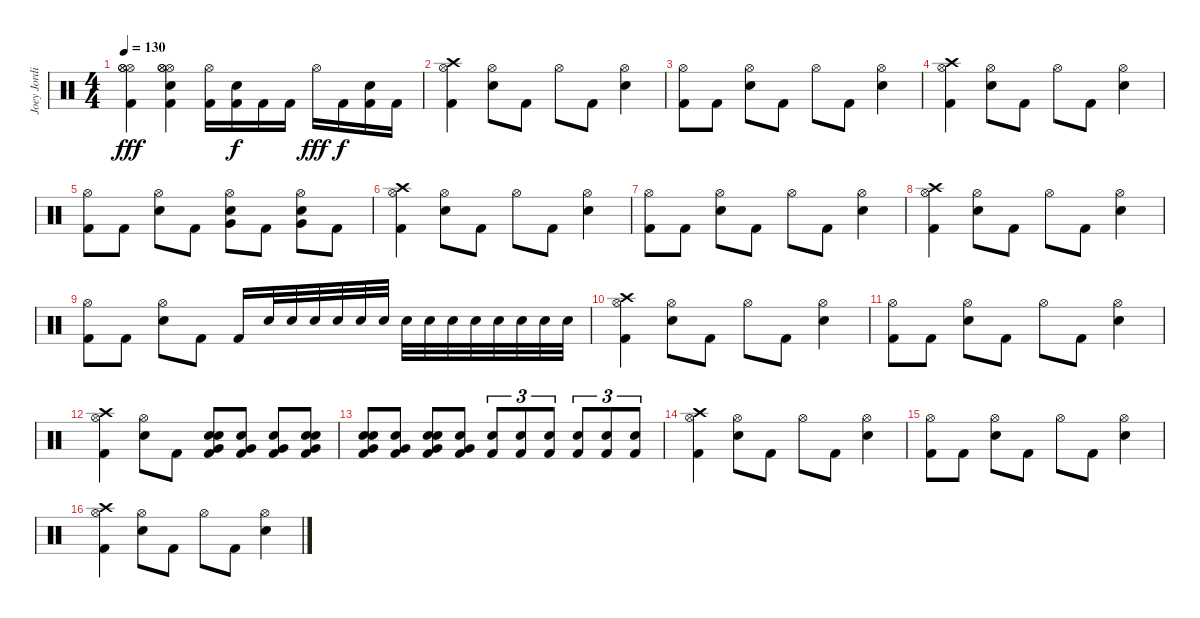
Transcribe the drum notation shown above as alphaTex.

\track ("Joey Jordison" "Joey Jordi") {instrument percussion}
\staff {score}
\articulation defaults
\ts (4 4)
\tempo 130
\clef neutral
\ks c
("Hi-Hat (open)" "Hi-Hat (open)" "Hi-Hat (open)" "Kick (hit) 2").4{dy fff} ("Hi-Hat (open)" "Hi-Hat (open)" "Hi-Hat (open)" "Electric Snare (hit)" "Kick (hit) 2").4 ("Hi-Hat (open)" "Kick (hit) 2").16 ("Electric Snare (hit)" "Kick (hit) 2").16{dy f} "Kick (hit) 2".16 "Kick (hit) 2".16 "Hi-Hat (open)".16{dy fff} "Kick (hit) 2".16{dy f} ("Electric Snare (hit)" "Kick (hit) 2").16 "Kick (hit) 2".16 |
("Hi-Hat (open)" "Crash high (hit)" "Kick (hit) 2").4 ("Hi-Hat (open)" "Electric Snare (hit)").8 "Kick (hit) 2".8 "Hi-Hat (open)".8 "Kick (hit) 2".8 ("Hi-Hat (open)" "Electric Snare (hit)").4 |
("Hi-Hat (open)" "Kick (hit) 2").8 "Kick (hit) 2".8 ("Hi-Hat (open)" "Electric Snare (hit)").8 "Kick (hit) 2".8 "Hi-Hat (open)".8 "Kick (hit) 2".8 ("Hi-Hat (open)" "Electric Snare (hit)").4 |
("Hi-Hat (open)" "Crash high (hit)" "Kick (hit) 2").4 ("Hi-Hat (open)" "Electric Snare (hit)").8 "Kick (hit) 2".8 "Hi-Hat (open)".8 "Kick (hit) 2".8 ("Hi-Hat (open)" "Electric Snare (hit)").4 |
("Hi-Hat (open)" "Kick (hit) 2").8 "Kick (hit) 2".8 ("Hi-Hat (open)" "Electric Snare (hit)").8 "Kick (hit) 2".8 ("Hi-Hat (open)" "Electric Snare (hit)" "Very Low Tom (hit)").8 "Kick (hit) 2".8 ("Hi-Hat (open)" "Very Low Tom (hit)" "Electric Snare (hit)").8 "Kick (hit) 2".8 |
("Hi-Hat (open)" "Crash high (hit)" "Kick (hit) 2").4 ("Hi-Hat (open)" "Electric Snare (hit)").8 "Kick (hit) 2".8 "Hi-Hat (open)".8 "Kick (hit) 2".8 ("Hi-Hat (open)" "Electric Snare (hit)").4 |
("Hi-Hat (open)" "Kick (hit) 2").8 "Kick (hit) 2".8 ("Hi-Hat (open)" "Electric Snare (hit)").8 "Kick (hit) 2".8 "Hi-Hat (open)".8 "Kick (hit) 2".8 ("Hi-Hat (open)" "Electric Snare (hit)").4 |
("Hi-Hat (open)" "Crash high (hit)" "Kick (hit) 2").4 ("Hi-Hat (open)" "Electric Snare (hit)").8 "Kick (hit) 2".8 "Hi-Hat (open)".8 "Kick (hit) 2".8 ("Hi-Hat (open)" "Electric Snare (hit)").4 |
("Hi-Hat (open)" "Kick (hit) 2").8 "Kick (hit) 2".8 ("Hi-Hat (open)" "Electric Snare (hit)").8 "Kick (hit) 2".8 "Kick (hit) 2".16 "Electric Snare (hit)".32 "Electric Snare (hit)".32 "Electric Snare (hit)".32 "Electric Snare (hit)".32 "Electric Snare (hit)".32 "Electric Snare (hit)".32 "Electric Snare (hit)".32 "Electric Snare (hit)".32 "Electric Snare (hit)".32 "Electric Snare (hit)".32 "Electric Snare (hit)".32 "Electric Snare (hit)".32 "Electric Snare (hit)".32 "Electric Snare (hit)".32 |
("Hi-Hat (open)" "Crash high (hit)" "Kick (hit) 2").4 ("Hi-Hat (open)" "Electric Snare (hit)").8 "Kick (hit) 2".8 "Hi-Hat (open)".8 "Kick (hit) 2".8 ("Hi-Hat (open)" "Electric Snare (hit)").4 |
("Hi-Hat (open)" "Kick (hit) 2").8 "Kick (hit) 2".8 ("Hi-Hat (open)" "Electric Snare (hit)").8 "Kick (hit) 2".8 "Hi-Hat (open)".8 "Kick (hit) 2".8 ("Hi-Hat (open)" "Electric Snare (hit)").4 |
("Hi-Hat (open)" "Crash high (hit)" "Kick (hit) 2").4 ("Hi-Hat (open)" "Electric Snare (hit)").8 "Kick (hit) 2".8 ("Snare (hit)" "Very Low Tom (hit)" "Electric Snare (hit)" "Kick (hit) 2").8 ("Very Low Tom (hit)" "Electric Snare (hit)" "Kick (hit) 2").8 ("Kick (hit) 2" "Very Low Tom (hit)" "Electric Snare (hit)").8 ("Snare (hit)" "Kick (hit) 2" "Very Low Tom (hit)" "Electric Snare (hit)").8 |
("Snare (hit)" "Electric Snare (hit)" "Very Low Tom (hit)" "Kick (hit) 2").8 ("Electric Snare (hit)" "Very Low Tom (hit)" "Kick (hit) 2").8 ("Snare (hit)" "Electric Snare (hit)" "Very Low Tom (hit)" "Kick (hit) 2").8 ("Electric Snare (hit)" "Very Low Tom (hit)" "Kick (hit) 2").8 ("Kick (hit) 2" "Electric Snare (hit)").8{tu (3 2)} ("Kick (hit) 2" "Electric Snare (hit)").8{tu (3 2)} ("Kick (hit) 2" "Electric Snare (hit)").8{tu (3 2)} ("Kick (hit) 2" "Electric Snare (hit)").8{tu (3 2)} ("Kick (hit) 2" "Electric Snare (hit)").8{tu (3 2)} ("Kick (hit) 2" "Electric Snare (hit)").8{tu (3 2)} |
("Hi-Hat (open)" "Crash high (hit)" "Kick (hit) 2").4 ("Hi-Hat (open)" "Electric Snare (hit)").8 "Kick (hit) 2".8 "Hi-Hat (open)".8 "Kick (hit) 2".8 ("Hi-Hat (open)" "Electric Snare (hit)").4 |
("Hi-Hat (open)" "Kick (hit) 2").8 "Kick (hit) 2".8 ("Hi-Hat (open)" "Electric Snare (hit)").8 "Kick (hit) 2".8 "Hi-Hat (open)".8 "Kick (hit) 2".8 ("Hi-Hat (open)" "Electric Snare (hit)").4 |
("Hi-Hat (open)" "Crash high (hit)" "Kick (hit) 2").4 ("Hi-Hat (open)" "Electric Snare (hit)").8 "Kick (hit) 2".8 "Hi-Hat (open)".8 "Kick (hit) 2".8 ("Hi-Hat (open)" "Electric Snare (hit)").4
